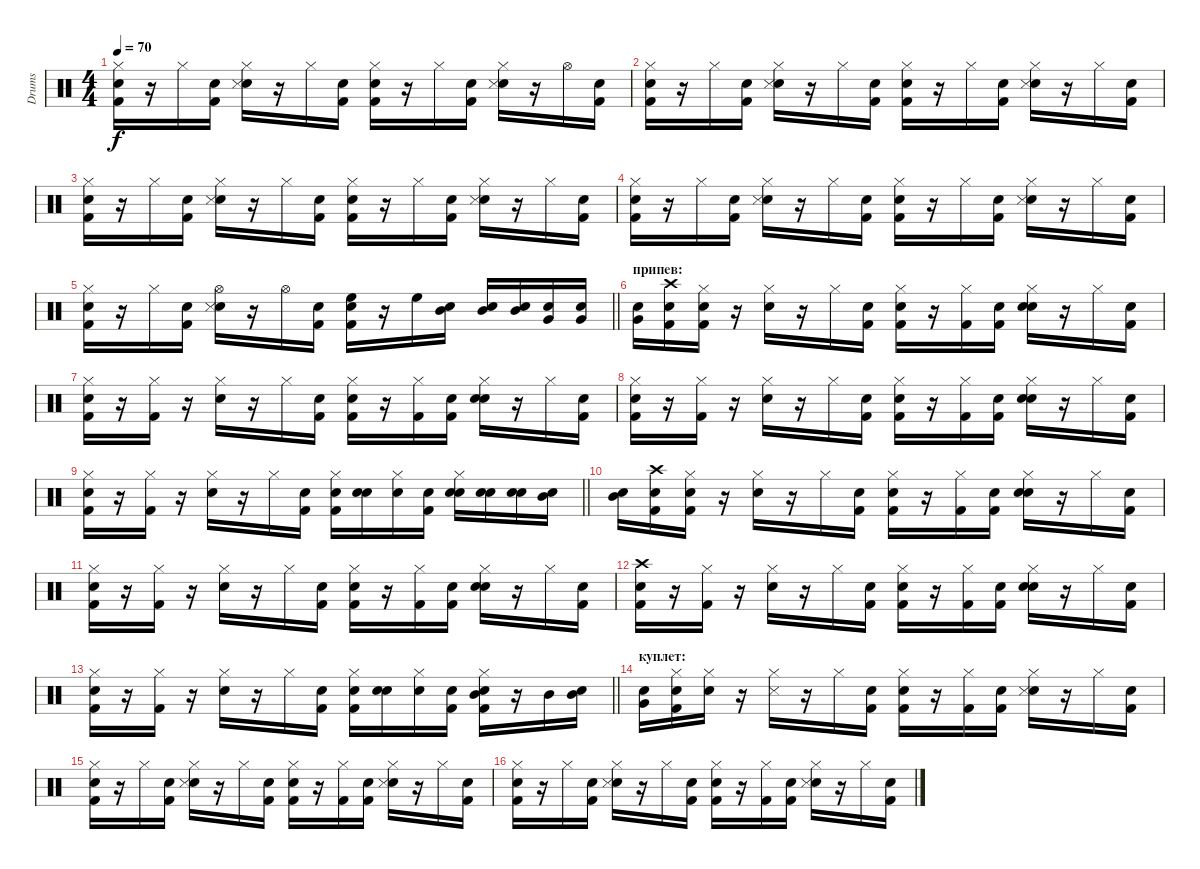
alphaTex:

\track ("Drums" "Drums") {instrument percussion}
\staff {score}
\articulation defaults
\ts (4 4)
\tempo 70
\clef neutral
\ks c
("Snare (hit)" "Kick (hit) 2" "Hi-Hat (closed)").16{dy f} r.16 "Hi-Hat (closed)".16 ("Snare (hit)" "Kick (hit) 2").16 ("Snare (hit)" "Snare (side stick) 3" "Hi-Hat (closed)").16 r.16 "Hi-Hat (closed)".16 ("Snare (hit)" "Kick (hit) 2").16 ("Snare (hit)" "Kick (hit) 2" "Hi-Hat (closed)").16 r.16 "Hi-Hat (closed)".16 ("Snare (hit)" "Kick (hit) 2").16 ("Snare (hit)" "Snare (side stick) 3" "Hi-Hat (closed)").16 r.16 "Hi-Hat (open)".16 ("Snare (hit)" "Kick (hit) 2").16 |
("Snare (hit)" "Kick (hit) 2" "Hi-Hat (closed)").16 r.16 "Hi-Hat (closed)".16 ("Snare (hit)" "Kick (hit) 2").16 ("Snare (hit)" "Snare (side stick) 3" "Hi-Hat (closed)").16 r.16 "Hi-Hat (closed)".16 ("Snare (hit)" "Kick (hit) 2").16 ("Snare (hit)" "Kick (hit) 2" "Hi-Hat (closed)").16 r.16 "Hi-Hat (closed)".16 ("Snare (hit)" "Kick (hit) 2").16 ("Snare (hit)" "Snare (side stick) 3" "Hi-Hat (closed)").16 r.16 "Hi-Hat (closed)".16 ("Snare (hit)" "Kick (hit) 2").16 |
("Snare (hit)" "Kick (hit) 2" "Hi-Hat (closed)").16 r.16 "Hi-Hat (closed)".16 ("Snare (hit)" "Kick (hit) 2").16 ("Snare (hit)" "Snare (side stick) 3" "Hi-Hat (closed)").16 r.16 "Hi-Hat (closed)".16 ("Snare (hit)" "Kick (hit) 2").16 ("Snare (hit)" "Kick (hit) 2" "Hi-Hat (closed)").16 r.16 "Hi-Hat (closed)".16 ("Snare (hit)" "Kick (hit) 2").16 ("Snare (hit)" "Snare (side stick) 3" "Hi-Hat (closed)").16 r.16 "Hi-Hat (closed)".16 ("Snare (hit)" "Kick (hit) 2").16 |
("Snare (hit)" "Kick (hit) 2" "Hi-Hat (closed)").16 r.16 "Hi-Hat (closed)".16 ("Snare (hit)" "Kick (hit) 2").16 ("Snare (hit)" "Snare (side stick) 3" "Hi-Hat (closed)").16 r.16 "Hi-Hat (closed)".16 ("Snare (hit)" "Kick (hit) 2").16 ("Snare (hit)" "Kick (hit) 2" "Hi-Hat (closed)").16 r.16 "Hi-Hat (closed)".16 ("Snare (hit)" "Kick (hit) 2").16 ("Snare (hit)" "Snare (side stick) 3" "Hi-Hat (closed)").16 r.16 "Hi-Hat (closed)".16 ("Snare (hit)" "Kick (hit) 2").16 |
\barLineRight lightlight
("Snare (hit)" "Kick (hit) 2" "Hi-Hat (closed)").16 r.16 "Hi-Hat (closed)".16 ("Snare (hit)" "Kick (hit) 2").16 ("Snare (hit)" "Snare (side stick) 3" "Hi-Hat (open)").16 r.16 "Hi-Hat (open)".16 ("Snare (hit)" "Kick (hit) 2").16 ("Snare (hit)" "Kick (hit) 2" "High Floor Tom (hit)").16 r.16 "High Floor Tom (hit)".16 ("Snare (hit)" "Mid Tom (hit)").16 ("Snare (hit)" "Mid Tom (hit)").16 ("Snare (hit)" "Mid Tom (hit)").16 ("Snare (hit)" "Very Low Tom (hit)").16 ("Snare (hit)" "Very Low Tom (hit)").16 |
\section ("" "припев:")
("Snare (hit)" "Very Low Tom (hit)").16 ("Snare (hit)" "Kick (hit) 2" "Crash high (hit)").16 ("Snare (hit)" "Kick (hit) 2" "Hi-Hat (closed)").16 r.16 ("Snare (hit) 2" "Hi-Hat (closed)").16 r.16 "Hi-Hat (closed)".16 ("Snare (hit)" "Kick (hit) 2").16 ("Snare (hit)" "Kick (hit) 2" "Hi-Hat (closed)").16 r.16 ("Kick (hit) 2" "Hi-Hat (closed)").16 ("Snare (hit)" "Kick (hit) 2").16 ("Snare (hit)" "Snare (hit) 2" "Hi-Hat (closed)").16 r.16 "Hi-Hat (closed)".16 ("Snare (hit)" "Kick (hit) 2").16 |
("Snare (hit)" "Kick (hit) 2" "Hi-Hat (closed)").16 r.16 ("Kick (hit) 2" "Hi-Hat (closed)").16 r.16 ("Snare (hit) 2" "Hi-Hat (closed)").16 r.16 "Hi-Hat (closed)".16 ("Snare (hit)" "Kick (hit) 2").16 ("Snare (hit)" "Kick (hit) 2" "Hi-Hat (closed)").16 r.16 ("Kick (hit) 2" "Hi-Hat (closed)").16 ("Snare (hit)" "Kick (hit) 2").16 ("Snare (hit)" "Snare (hit) 2" "Hi-Hat (closed)").16 r.16 "Hi-Hat (closed)".16 ("Snare (hit)" "Kick (hit) 2").16 |
("Snare (hit)" "Kick (hit) 2" "Hi-Hat (closed)").16 r.16 ("Kick (hit) 2" "Hi-Hat (closed)").16 r.16 ("Snare (hit) 2" "Hi-Hat (closed)").16 r.16 "Hi-Hat (closed)".16 ("Snare (hit)" "Kick (hit) 2").16 ("Snare (hit)" "Kick (hit) 2" "Hi-Hat (closed)").16 r.16 ("Kick (hit) 2" "Hi-Hat (closed)").16 ("Snare (hit)" "Kick (hit) 2").16 ("Snare (hit)" "Snare (hit) 2" "Hi-Hat (closed)").16 r.16 "Hi-Hat (closed)".16 ("Snare (hit)" "Kick (hit) 2").16 |
\barLineRight lightlight
("Snare (hit)" "Kick (hit) 2" "Hi-Hat (closed)").16 r.16 ("Kick (hit) 2" "Hi-Hat (closed)").16 r.16 ("Snare (hit) 2" "Hi-Hat (closed)").16 r.16 "Hi-Hat (closed)".16 ("Snare (hit)" "Kick (hit) 2").16 ("Snare (hit)" "Kick (hit) 2" "Hi-Hat (closed)").16 ("Snare (hit)" "Snare (hit) 2").16 ("Snare (hit)" "Hi-Hat (closed)").16 ("Snare (hit)" "Kick (hit) 2").16 ("Snare (hit)" "Snare (hit) 2" "Hi-Hat (closed)").16 ("Snare (hit)" "Snare (hit) 2").16 ("Snare (hit)" "Snare (hit) 2").16 ("Snare (hit)" "Mid Tom (hit)").16 |
("Snare (hit)" "Mid Tom (hit)").16 ("Snare (hit)" "Kick (hit) 2" "Crash high (hit)").16 ("Snare (hit)" "Kick (hit) 2" "Hi-Hat (closed)").16 r.16 ("Snare (hit) 2" "Hi-Hat (closed)").16 r.16 "Hi-Hat (closed)".16 ("Snare (hit)" "Kick (hit) 2").16 ("Snare (hit)" "Kick (hit) 2" "Hi-Hat (closed)").16 r.16 ("Kick (hit) 2" "Hi-Hat (closed)").16 ("Snare (hit)" "Kick (hit) 2").16 ("Snare (hit)" "Snare (hit) 2" "Hi-Hat (closed)").16 r.16 "Hi-Hat (closed)".16 ("Snare (hit)" "Kick (hit) 2").16 |
("Snare (hit)" "Kick (hit) 2" "Hi-Hat (closed)").16 r.16 ("Kick (hit) 2" "Hi-Hat (closed)").16 r.16 ("Snare (hit) 2" "Hi-Hat (closed)").16 r.16 "Hi-Hat (closed)".16 ("Snare (hit)" "Kick (hit) 2").16 ("Snare (hit)" "Kick (hit) 2" "Hi-Hat (closed)").16 r.16 ("Kick (hit) 2" "Hi-Hat (closed)").16 ("Snare (hit)" "Kick (hit) 2").16 ("Snare (hit)" "Snare (hit) 2" "Hi-Hat (closed)").16 r.16 "Hi-Hat (closed)".16 ("Snare (hit)" "Kick (hit) 2").16 |
("Snare (hit)" "Kick (hit) 2" "Crash high (hit)").16 r.16 ("Kick (hit) 2" "Hi-Hat (closed)").16 r.16 ("Snare (hit) 2" "Hi-Hat (closed)").16 r.16 "Hi-Hat (closed)".16 ("Snare (hit)" "Kick (hit) 2").16 ("Snare (hit)" "Kick (hit) 2" "Hi-Hat (closed)").16 r.16 ("Kick (hit) 2" "Hi-Hat (closed)").16 ("Snare (hit)" "Kick (hit) 2").16 ("Snare (hit)" "Snare (hit) 2" "Hi-Hat (closed)").16 r.16 "Hi-Hat (closed)".16 ("Snare (hit)" "Kick (hit) 2").16 |
\barLineRight lightlight
("Snare (hit)" "Kick (hit) 2" "Hi-Hat (closed)").16 r.16 ("Kick (hit) 2" "Hi-Hat (closed)").16 r.16 ("Snare (hit) 2" "Hi-Hat (closed)").16 r.16 "Hi-Hat (closed)".16 ("Snare (hit)" "Kick (hit) 2").16 ("Snare (hit)" "Kick (hit) 2" "Hi-Hat (closed)").16 ("Snare (hit)" "Snare (hit) 2").16 ("Snare (hit)" "Hi-Hat (closed)").16 ("Snare (hit)" "Kick (hit) 2").16 ("Snare (hit)" "Kick (hit) 2" "Hi-Hat (closed)" "Mid Tom (hit)").16 r.16 "Mid Tom (hit)".16 ("Snare (hit)" "Mid Tom (hit)").16 |
\section ("" "куплет:")
("Snare (hit)" "Very Low Tom (hit)").16 ("Snare (hit)" "Kick (hit) 2" "Hi-Hat (closed)").16 ("Snare (hit)" "Hi-Hat (closed)").16 r.16 ("Snare (side stick) 3" "Hi-Hat (closed)").16 r.16 "Hi-Hat (closed)".16 ("Snare (hit)" "Kick (hit) 2").16 ("Snare (hit)" "Kick (hit) 2" "Hi-Hat (closed)").16 r.16 ("Kick (hit) 2" "Hi-Hat (closed)").16 ("Snare (hit)" "Kick (hit) 2").16 ("Snare (hit)" "Snare (side stick) 3" "Hi-Hat (closed)").16 r.16 "Hi-Hat (closed)".16 ("Snare (hit)" "Kick (hit) 2").16 |
("Snare (hit)" "Kick (hit) 2" "Hi-Hat (closed)").16 r.16 "Hi-Hat (closed)".16 ("Snare (hit)" "Kick (hit) 2").16 ("Snare (hit)" "Snare (side stick) 3" "Hi-Hat (closed)").16 r.16 "Hi-Hat (closed)".16 ("Snare (hit)" "Kick (hit) 2").16 ("Snare (hit)" "Kick (hit) 2" "Hi-Hat (closed)").16 r.16 ("Kick (hit) 2" "Hi-Hat (closed)").16 ("Snare (hit)" "Kick (hit) 2").16 ("Snare (hit)" "Snare (side stick) 3" "Hi-Hat (closed)").16 r.16 "Hi-Hat (closed)".16 ("Snare (hit)" "Kick (hit) 2").16 |
("Snare (hit)" "Kick (hit) 2" "Hi-Hat (closed)").16 r.16 "Hi-Hat (closed)".16 ("Snare (hit)" "Kick (hit) 2").16 ("Snare (hit)" "Snare (side stick) 3" "Hi-Hat (closed)").16 r.16 "Hi-Hat (closed)".16 ("Snare (hit)" "Kick (hit) 2").16 ("Snare (hit)" "Kick (hit) 2" "Hi-Hat (closed)").16 r.16 ("Kick (hit) 2" "Hi-Hat (closed)").16 ("Snare (hit)" "Kick (hit) 2").16 ("Snare (hit)" "Snare (side stick) 3" "Hi-Hat (closed)").16 r.16 "Hi-Hat (closed)".16 ("Snare (hit)" "Kick (hit) 2").16
